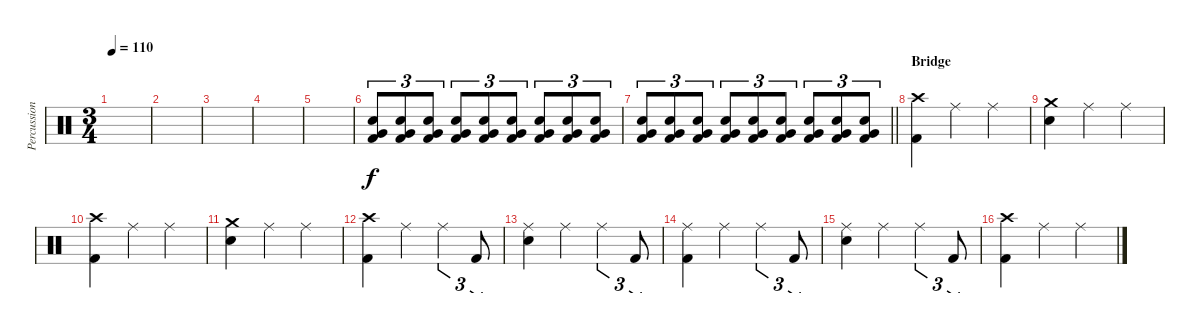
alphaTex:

\track ("Percussion" "Percussion") {instrument percussion}
\staff {score}
\articulation defaults
\ts (3 4)
\tempo 110
\clef neutral
\ks c
|
|
|
|
|
("Very Low Tom (hit)" "Snare (hit) 2" "Kick (hit) 2").8{tu (3 2) volume 13} ("Very Low Tom (hit)" "Snare (hit) 2" "Kick (hit) 2").8{tu (3 2)} ("Very Low Tom (hit)" "Snare (hit) 2" "Kick (hit) 2").8{tu (3 2)} ("Very Low Tom (hit)" "Snare (hit) 2" "Kick (hit) 2").8{tu (3 2)} ("Very Low Tom (hit)" "Snare (hit) 2" "Kick (hit) 2").8{tu (3 2)} ("Very Low Tom (hit)" "Snare (hit) 2" "Kick (hit) 2").8{tu (3 2)} ("Very Low Tom (hit)" "Snare (hit) 2" "Kick (hit) 2").8{tu (3 2)} ("Very Low Tom (hit)" "Snare (hit) 2" "Kick (hit) 2").8{tu (3 2)} ("Very Low Tom (hit)" "Snare (hit) 2" "Kick (hit) 2").8{tu (3 2)} |
\barLineRight lightlight
("Very Low Tom (hit)" "Snare (hit) 2" "Kick (hit) 2").8{tu (3 2)} ("Very Low Tom (hit)" "Snare (hit) 2" "Kick (hit) 2").8{tu (3 2)} ("Very Low Tom (hit)" "Snare (hit) 2" "Kick (hit) 2").8{tu (3 2)} ("Very Low Tom (hit)" "Snare (hit) 2" "Kick (hit) 2").8{tu (3 2)} ("Very Low Tom (hit)" "Snare (hit) 2" "Kick (hit) 2").8{tu (3 2)} ("Very Low Tom (hit)" "Snare (hit) 2" "Kick (hit) 2").8{tu (3 2)} ("Very Low Tom (hit)" "Snare (hit) 2" "Kick (hit) 2").8{tu (3 2)} ("Very Low Tom (hit)" "Snare (hit) 2" "Kick (hit) 2").8{tu (3 2)} ("Very Low Tom (hit)" "Snare (hit) 2" "Kick (hit) 2").8{tu (3 2)} |
\section ("" "Bridge")
("Crash high (hit)" "Kick (hit) 2").4 "Ride (middle)".4 "Ride (middle)".4 |
("Crash medium (hit)" "Snare (hit) 2").4 "Ride (middle)".4 "Ride (middle)".4 |
("Crash high (hit)" "Kick (hit) 2").4 "Ride (middle)".4 "Ride (middle)".4 |
("Crash medium (hit)" "Snare (hit) 2").4 "Ride (middle)".4 "Ride (middle)".4 |
("Crash high (hit)" "Kick (hit) 2").4 "Ride (middle)".4 "Ride (middle)".4{tu (3 2)} "Kick (hit) 2".8{tu (3 2)} |
("Ride (middle)" "Snare (hit) 2").4 "Ride (middle)".4 "Ride (middle)".4{tu (3 2)} "Kick (hit) 2".8{tu (3 2)} |
("Ride (middle)" "Kick (hit) 2").4 "Ride (middle)".4 "Ride (middle)".4{tu (3 2)} "Kick (hit) 2".8{tu (3 2)} |
("Ride (middle)" "Snare (hit) 2").4 "Ride (middle)".4 "Ride (middle)".4{tu (3 2)} "Kick (hit) 2".8{tu (3 2)} |
("Crash high (hit)" "Kick (hit) 2").4 "Ride (middle)".4 "Ride (middle)".4
